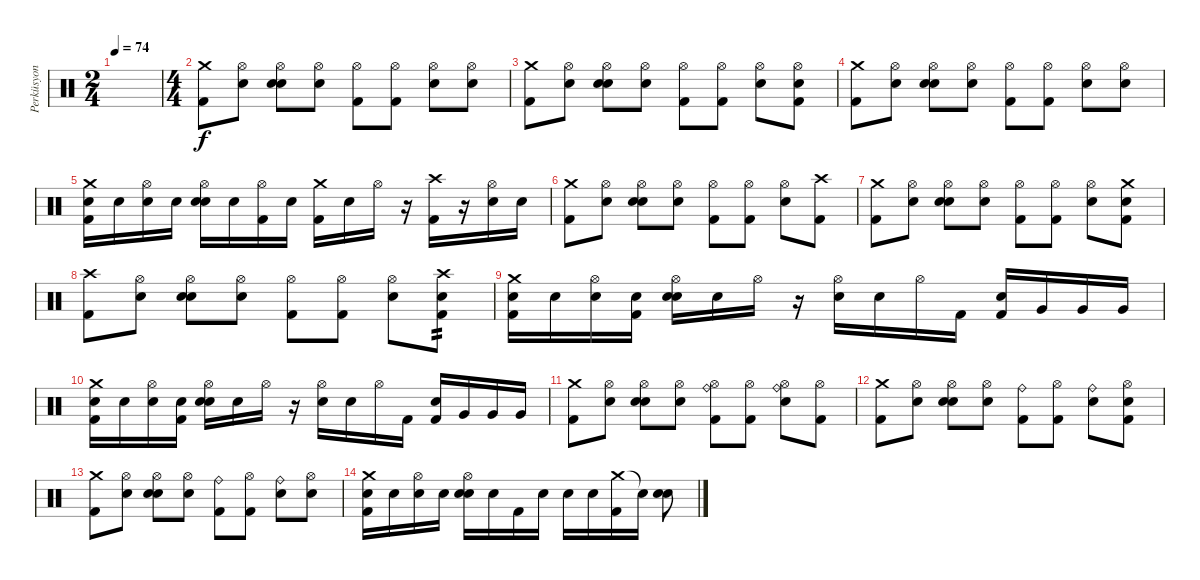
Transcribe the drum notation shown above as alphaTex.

\track ("Perküsyon" "Perküsyon") {instrument percussion}
\staff {score}
\articulation defaults
\ts (2 4)
\tempo 74
\clef neutral
\ks c
|
\ts (4 4)
("Crash medium (hit)" "Kick (hit) 2").8 ("Hi-Hat (open)" "Snare (hit)").8 ("Hi-Hat (open)" "Electric Snare (hit)" "Snare (hit)").8 ("Hi-Hat (open)" "Snare (hit)").8 ("Hi-Hat (open)" "Kick (hit) 2").8 ("Hi-Hat (open)" "Kick (hit) 2").8 ("Hi-Hat (open)" "Electric Snare (hit)").8 ("Hi-Hat (open)" "Snare (hit)").8 |
("Crash medium (hit)" "Kick (hit) 2").8 ("Hi-Hat (open)" "Snare (hit)").8 ("Hi-Hat (open)" "Electric Snare (hit)" "Snare (hit)").8 ("Hi-Hat (open)" "Snare (hit)").8 ("Hi-Hat (open)" "Kick (hit) 2").8 ("Hi-Hat (open)" "Kick (hit) 2").8 ("Hi-Hat (open)" "Electric Snare (hit)").8 ("Hi-Hat (open)" "Snare (hit)" "Kick (hit) 2").8 |
("Crash medium (hit)" "Kick (hit) 2").8 ("Hi-Hat (open)" "Snare (hit)").8 ("Hi-Hat (open)" "Electric Snare (hit)" "Snare (hit)").8 ("Hi-Hat (open)" "Snare (hit)").8 ("Hi-Hat (open)" "Kick (hit) 2").8 ("Hi-Hat (open)" "Kick (hit) 2").8 ("Hi-Hat (open)" "Electric Snare (hit)").8 ("Hi-Hat (open)" "Snare (hit)").8 |
("Crash medium (hit)" "Snare (hit)" "Kick (hit) 2").16 "Snare (hit)".16 ("Hi-Hat (open)" "Snare (hit)").16 "Snare (hit)".16 ("Hi-Hat (open)" "Electric Snare (hit)" "Snare (hit)").16 "Snare (hit)".16 ("Hi-Hat (open)" "Kick (hit) 2").16 "Electric Snare (hit)".16 ("Crash medium (hit)" "Kick (hit) 2").16 "Snare (hit)".16 "Hi-Hat (open)".16 r.16 ("Crash high (hit)" "Kick (hit) 2").16 r.16 ("Hi-Hat (open)" "Electric Snare (hit)").16 "Electric Snare (hit)".16 |
("Crash medium (hit)" "Kick (hit) 2").8 ("Hi-Hat (open)" "Snare (hit)").8 ("Hi-Hat (open)" "Electric Snare (hit)" "Snare (hit)").8 ("Hi-Hat (open)" "Snare (hit)").8 ("Hi-Hat (open)" "Kick (hit) 2").8 ("Hi-Hat (open)" "Kick (hit) 2").8 ("Hi-Hat (open)" "Electric Snare (hit)").8 ("Crash high (hit)" "Kick (hit) 2").8 |
("Crash medium (hit)" "Kick (hit) 2").8 ("Hi-Hat (open)" "Snare (hit)").8 ("Hi-Hat (open)" "Electric Snare (hit)" "Snare (hit)").8 ("Hi-Hat (open)" "Snare (hit)").8 ("Hi-Hat (open)" "Kick (hit) 2").8 ("Hi-Hat (open)" "Kick (hit) 2").8 ("Hi-Hat (open)" "Electric Snare (hit)").8 ("Crash medium (hit)" "Snare (hit)" "Kick (hit) 2").8 |
("Crash high (hit)" "Kick (hit) 2").8 ("Hi-Hat (open)" "Snare (hit)").8 ("Hi-Hat (open)" "Electric Snare (hit)" "Snare (hit)").8 ("Hi-Hat (open)" "Snare (hit)").8 ("Hi-Hat (open)" "Kick (hit) 2").8 ("Hi-Hat (open)" "Kick (hit) 2").8 ("Hi-Hat (open)" "Electric Snare (hit)").8 ("Crash high (hit)" "Kick (hit) 2" "Electric Snare (hit)").8{tp 2} |
("Crash medium (hit)" "Snare (hit)" "Kick (hit) 2").16 "Snare (hit)".16 ("Hi-Hat (open)" "Snare (hit)").16 ("Snare (hit)" "Kick (hit) 2").16 ("Hi-Hat (open)" "Electric Snare (hit)" "Snare (hit)").16 "Snare (hit)".16 "Hi-Hat (open)".16 r.16 ("Hi-Hat (open)" "Electric Snare (hit)").16 "Snare (hit)".16 "Hi-Hat (open)".16 "Kick (hit) 2".16 ("Electric Snare (hit)" "Kick (hit) 2").16 "Very Low Tom (hit)".16 "Very Low Tom (hit)".16 "Very Low Tom (hit)".16 |
("Crash medium (hit)" "Snare (hit)" "Kick (hit) 2").16 "Snare (hit)".16 ("Hi-Hat (open)" "Snare (hit)").16 ("Snare (hit)" "Kick (hit) 2").16 ("Hi-Hat (open)" "Electric Snare (hit)" "Snare (hit)").16 "Snare (hit)".16 "Hi-Hat (open)".16 r.16 ("Hi-Hat (open)" "Electric Snare (hit)").16 "Snare (hit)".16 "Hi-Hat (open)".16 "Kick (hit) 2".16 ("Electric Snare (hit)" "Kick (hit) 2").16 "Very Low Tom (hit)".16 "Very Low Tom (hit)".16 "Very Low Tom (hit)".16 |
("Crash medium (hit)" "Kick (hit) 2").8 ("Hi-Hat (open)" "Snare (hit)").8 ("Hi-Hat (open)" "Electric Snare (hit)" "Snare (hit)").8 ("Hi-Hat (open)" "Snare (hit)").8 ("Ride (bell)" "Hi-Hat (open)" "Kick (hit) 2").8 ("Hi-Hat (open)" "Kick (hit) 2").8 ("Hi-Hat (open)" "Ride (bell)" "Electric Snare (hit)").8 ("Hi-Hat (open)" "Kick (hit) 2").8 |
("Crash medium (hit)" "Kick (hit) 2").8 ("Hi-Hat (open)" "Snare (hit)").8 ("Hi-Hat (open)" "Electric Snare (hit)" "Snare (hit)").8 ("Hi-Hat (open)" "Snare (hit)").8 ("Ride (bell)" "Kick (hit) 2").8 ("Hi-Hat (open)" "Kick (hit) 2").8 ("Ride (bell)" "Electric Snare (hit)").8 ("Hi-Hat (open)" "Snare (hit)" "Kick (hit) 2").8 |
("Crash medium (hit)" "Kick (hit) 2").8 ("Hi-Hat (open)" "Snare (hit)").8 ("Hi-Hat (open)" "Electric Snare (hit)" "Snare (hit)").8 ("Hi-Hat (open)" "Snare (hit)").8 ("Ride (bell)" "Kick (hit) 2").8 ("Hi-Hat (open)" "Kick (hit) 2").8 ("Ride (bell)" "Electric Snare (hit)").8 ("Hi-Hat (open)" "Snare (hit)").8 |
("Crash medium (hit)" "Snare (hit)" "Kick (hit) 2").16 "Snare (hit)".16 ("Hi-Hat (open)" "Snare (hit)").16 "Snare (hit)".16 ("Hi-Hat (open)" "Electric Snare (hit)" "Snare (hit)").16 "Snare (hit)".16 "Kick (hit) 2".16 "Snare (hit)".16 "Electric Snare (hit)".16 "Electric Snare (hit)".16 ("Crash medium (hit)" "Kick (hit) 2").16 "Snare (hit)"{t}.16 ("Electric Snare (hit)" "Electric Snare (hit)").8{bd 480}
